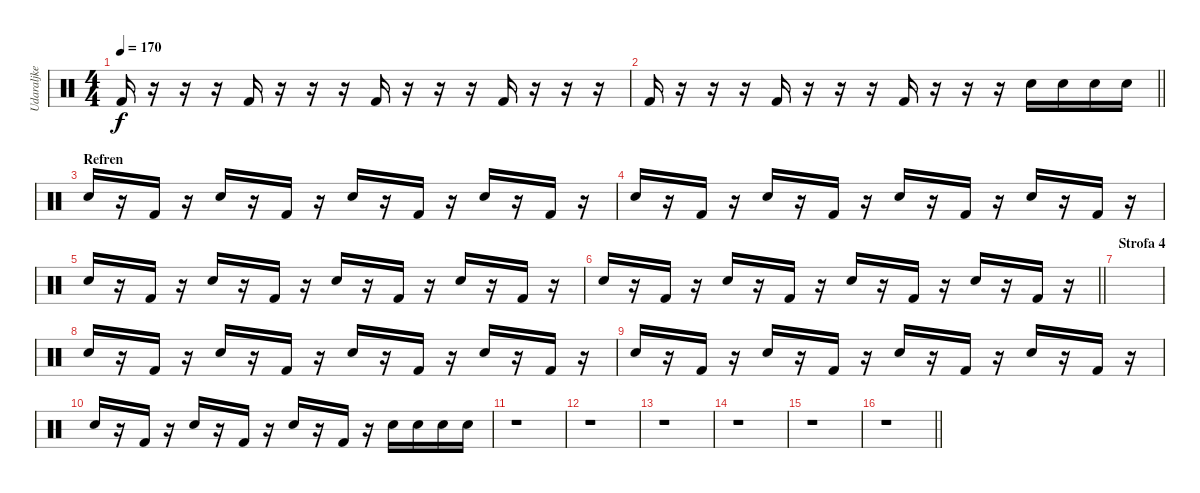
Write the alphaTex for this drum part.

\track ("Udaraljke" "Udaraljke") {instrument percussion}
\staff {score}
\articulation defaults
\ts (4 4)
\tempo 170
\clef neutral
\ks c "Kick (hit) 2".16{dy f}
r.16 r.16 r.16 "Kick (hit) 2".16 r.16 r.16 r.16 "Kick (hit) 2".16 r.16 r.16 r.16 "Kick (hit) 2".16 r.16 r.16 r.16 |
\barLineRight lightlight "Kick (hit) 2".16
r.16 r.16 r.16 "Kick (hit) 2".16 r.16 r.16 r.16 "Kick (hit) 2".16 r.16 r.16 r.16 "Snare (hit) 2".16 "Snare (hit) 2".16 "Snare (hit) 2".16 "Snare (hit) 2".16 |
\section ("" "Refren")
"Snare (hit) 2".16 r.16 "Kick (hit) 2".16 r.16 "Snare (hit) 2".16 r.16 "Kick (hit) 2".16 r.16 "Snare (hit) 2".16 r.16 "Kick (hit) 2".16 r.16 "Snare (hit) 2".16 r.16 "Kick (hit) 2".16 r.16 |
"Snare (hit) 2".16 r.16 "Kick (hit) 2".16 r.16 "Snare (hit) 2".16 r.16 "Kick (hit) 2".16 r.16 "Snare (hit) 2".16 r.16 "Kick (hit) 2".16 r.16 "Snare (hit) 2".16 r.16 "Kick (hit) 2".16 r.16 |
"Snare (hit) 2".16 r.16 "Kick (hit) 2".16 r.16 "Snare (hit) 2".16 r.16 "Kick (hit) 2".16 r.16 "Snare (hit) 2".16 r.16 "Kick (hit) 2".16 r.16 "Snare (hit) 2".16 r.16 "Kick (hit) 2".16 r.16 |
\barLineRight lightlight "Snare (hit) 2".16
r.16 "Kick (hit) 2".16 r.16 "Snare (hit) 2".16 r.16 "Kick (hit) 2".16 r.16 "Snare (hit) 2".16 r.16 "Kick (hit) 2".16 r.16 "Snare (hit) 2".16 r.16 "Kick (hit) 2".16 r.16 |
\section ("" "Strofa 4")
|
"Snare (hit) 2".16 r.16 "Kick (hit) 2".16 r.16 "Snare (hit) 2".16 r.16 "Kick (hit) 2".16 r.16 "Snare (hit) 2".16 r.16 "Kick (hit) 2".16 r.16 "Snare (hit) 2".16 r.16 "Kick (hit) 2".16 r.16 |
"Snare (hit) 2".16 r.16 "Kick (hit) 2".16 r.16 "Snare (hit) 2".16 r.16 "Kick (hit) 2".16 r.16 "Snare (hit) 2".16 r.16 "Kick (hit) 2".16 r.16 "Snare (hit) 2".16 r.16 "Kick (hit) 2".16 r.16 |
"Snare (hit) 2".16 r.16 "Kick (hit) 2".16 r.16 "Snare (hit) 2".16 r.16 "Kick (hit) 2".16 r.16 "Snare (hit) 2".16 r.16 "Kick (hit) 2".16 r.16 "Snare (hit) 2".16 "Snare (hit) 2".16 "Snare (hit) 2".16 "Snare (hit) 2".16 |
r.1 |
r.1 |
r.1 |
r.1 |
r.1 |
\barLineRight lightlight
r.1
